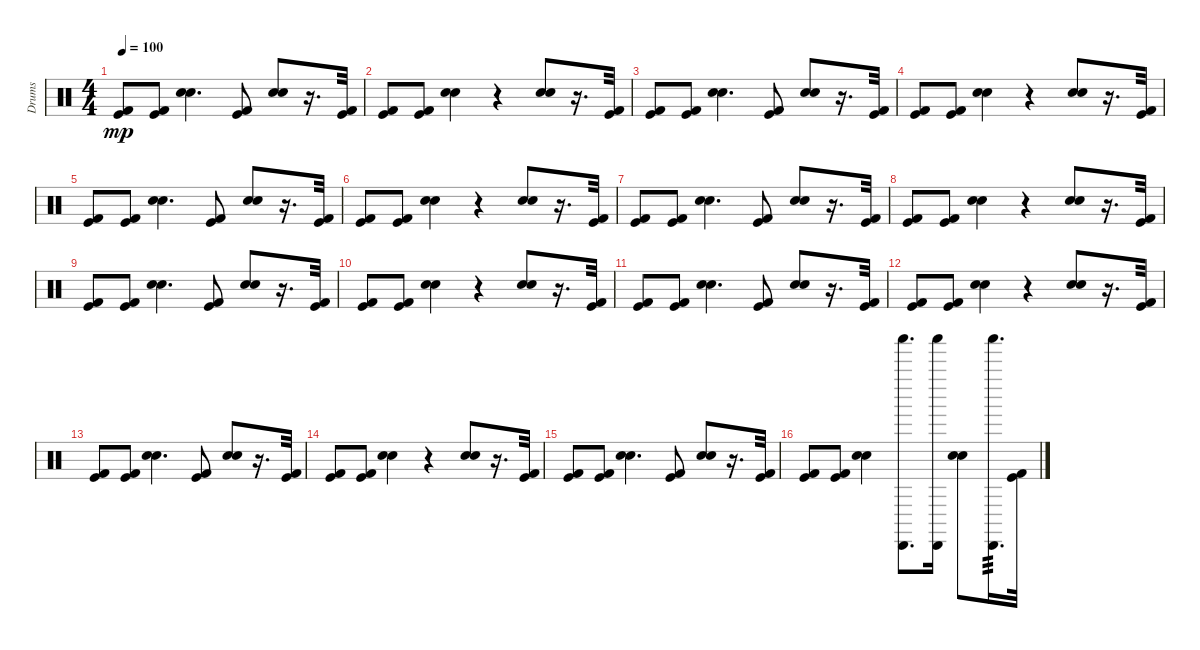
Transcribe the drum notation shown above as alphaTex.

\track ("Drums" "Drums") {instrument percussion}
\staff {score}
\articulation defaults
\ts (4 4)
\tempo 100
\clef neutral
\ks c
("Kick (hit)" "Kick (hit) 2").8{dy mp} ("Kick (hit)" "Kick (hit) 2").8 ("Snare (hit) 2" "Electric Snare (hit)").4{d} ("Kick (hit)" "Kick (hit) 2").8 ("Snare (hit) 2" "Electric Snare (hit)").8 r.16{d} ("Kick (hit)" "Kick (hit) 2").32 |
("Kick (hit)" "Kick (hit) 2").8 ("Kick (hit)" "Kick (hit) 2").8 ("Snare (hit) 2" "Electric Snare (hit)").4 r.4 ("Snare (hit) 2" "Electric Snare (hit)").8 r.16{d} ("Kick (hit)" "Kick (hit) 2").32 |
("Kick (hit)" "Kick (hit) 2").8 ("Kick (hit)" "Kick (hit) 2").8 ("Snare (hit) 2" "Electric Snare (hit)").4{d} ("Kick (hit)" "Kick (hit) 2").8 ("Snare (hit) 2" "Electric Snare (hit)").8 r.16{d} ("Kick (hit)" "Kick (hit) 2").32 |
("Kick (hit)" "Kick (hit) 2").8 ("Kick (hit)" "Kick (hit) 2").8 ("Snare (hit) 2" "Electric Snare (hit)").4 r.4 ("Snare (hit) 2" "Electric Snare (hit)").8 r.16{d} ("Kick (hit)" "Kick (hit) 2").32 |
("Kick (hit)" "Kick (hit) 2").8 ("Kick (hit)" "Kick (hit) 2").8 ("Snare (hit) 2" "Electric Snare (hit)").4{d} ("Kick (hit)" "Kick (hit) 2").8 ("Snare (hit) 2" "Electric Snare (hit)").8 r.16{d} ("Kick (hit)" "Kick (hit) 2").32 |
("Kick (hit)" "Kick (hit) 2").8 ("Kick (hit)" "Kick (hit) 2").8 ("Snare (hit) 2" "Electric Snare (hit)").4 r.4 ("Snare (hit) 2" "Electric Snare (hit)").8 r.16{d} ("Kick (hit)" "Kick (hit) 2").32 |
("Kick (hit)" "Kick (hit) 2").8 ("Kick (hit)" "Kick (hit) 2").8 ("Snare (hit) 2" "Electric Snare (hit)").4{d} ("Kick (hit)" "Kick (hit) 2").8 ("Snare (hit) 2" "Electric Snare (hit)").8 r.16{d} ("Kick (hit)" "Kick (hit) 2").32 |
("Kick (hit)" "Kick (hit) 2").8 ("Kick (hit)" "Kick (hit) 2").8 ("Snare (hit) 2" "Electric Snare (hit)").4 r.4 ("Snare (hit) 2" "Electric Snare (hit)").8 r.16{d} ("Kick (hit)" "Kick (hit) 2").32 |
("Kick (hit)" "Kick (hit) 2").8 ("Kick (hit)" "Kick (hit) 2").8 ("Snare (hit) 2" "Electric Snare (hit)").4{d} ("Kick (hit)" "Kick (hit) 2").8 ("Snare (hit) 2" "Electric Snare (hit)").8 r.16{d} ("Kick (hit)" "Kick (hit) 2").32 |
("Kick (hit)" "Kick (hit) 2").8 ("Kick (hit)" "Kick (hit) 2").8 ("Snare (hit) 2" "Electric Snare (hit)").4 r.4 ("Snare (hit) 2" "Electric Snare (hit)").8 r.16{d} ("Kick (hit)" "Kick (hit) 2").32 |
("Kick (hit)" "Kick (hit) 2").8 ("Kick (hit)" "Kick (hit) 2").8 ("Snare (hit) 2" "Electric Snare (hit)").4{d} ("Kick (hit)" "Kick (hit) 2").8 ("Snare (hit) 2" "Electric Snare (hit)").8 r.16{d} ("Kick (hit)" "Kick (hit) 2").32 |
("Kick (hit)" "Kick (hit) 2").8 ("Kick (hit)" "Kick (hit) 2").8 ("Snare (hit) 2" "Electric Snare (hit)").4 r.4 ("Snare (hit) 2" "Electric Snare (hit)").8 r.16{d} ("Kick (hit)" "Kick (hit) 2").32 |
("Kick (hit)" "Kick (hit) 2").8 ("Kick (hit)" "Kick (hit) 2").8 ("Snare (hit) 2" "Electric Snare (hit)").4{d} ("Kick (hit)" "Kick (hit) 2").8 ("Snare (hit) 2" "Electric Snare (hit)").8 r.16{d} ("Kick (hit)" "Kick (hit) 2").32 |
("Kick (hit)" "Kick (hit) 2").8 ("Kick (hit)" "Kick (hit) 2").8 ("Snare (hit) 2" "Electric Snare (hit)").4 r.4 ("Snare (hit) 2" "Electric Snare (hit)").8 r.16{d} ("Kick (hit)" "Kick (hit) 2").32 |
("Kick (hit)" "Kick (hit) 2").8 ("Kick (hit)" "Kick (hit) 2").8 ("Snare (hit) 2" "Electric Snare (hit)").4{d} ("Kick (hit)" "Kick (hit) 2").8 ("Snare (hit) 2" "Electric Snare (hit)").8 r.16{d} ("Kick (hit)" "Kick (hit) 2").32 |
("Kick (hit)" "Kick (hit) 2").8 ("Kick (hit)" "Kick (hit) 2").8 ("Snare (hit) 2" "Electric Snare (hit)").4 ("Shaker (hit)" "Cabasa (hit)").8{d} ("Shaker (hit)" "Cabasa (hit)").16 ("Snare (hit) 2" "Electric Snare (hit)").8 ("Shaker (hit)" "Cabasa (hit)").16{d tp 3} ("Kick (hit)" "Kick (hit) 2").32
